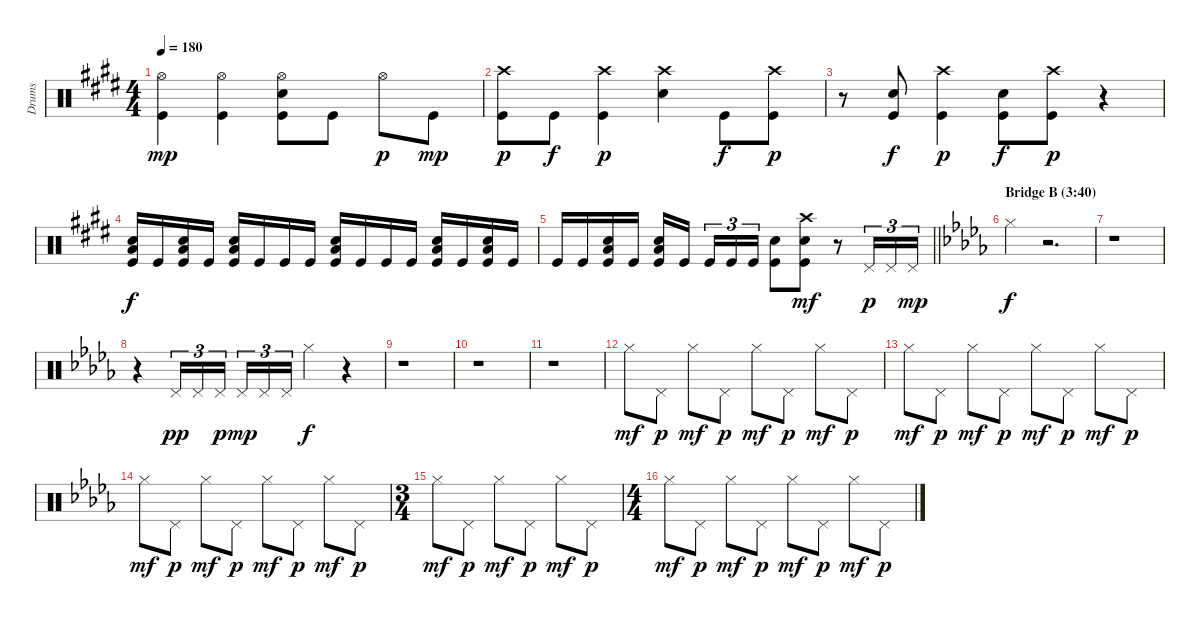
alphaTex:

\track ("Drums" "Drums") {instrument percussion}
\staff {score}
\articulation defaults
\ts (4 4)
\tempo 180
\clef neutral
\ks c#minor
("Hi-Hat (open)" "Kick (hit)").4{dy mp} ("Hi-Hat (open)" "Kick (hit)").4 ("Hi-Hat (open)" "Snare (hit) 2" "Kick (hit)").8 "Kick (hit)".8 "Hi-Hat (open)".8{dy p} "Kick (hit)".8{dy mp} |
("Crash high (hit)" "Kick (hit)").8{dy p} "Kick (hit)".8{dy f} ("Crash high (hit)" "Kick (hit)").4{dy p} ("Crash high (hit)" "Snare (hit) 2").4 "Kick (hit)".8{dy f} ("Crash high (hit)" "Kick (hit)").8{dy p} |
r.8 ("Snare (hit) 2" "Kick (hit)").8{dy f} ("Crash high (hit)" "Kick (hit)").4{dy p} ("Snare (hit) 2" "Kick (hit)").8{dy f} ("Crash high (hit)" "Kick (hit)").8{dy p} r.4 |
("Low Floor Tom (hit)" "Snare (hit) 2" "Kick (hit)").16{dy f} "Kick (hit)".16 ("Low Floor Tom (hit)" "Snare (hit) 2" "Kick (hit)").16 "Kick (hit)".16 ("Low Floor Tom (hit)" "Snare (hit) 2" "Kick (hit)").16 "Kick (hit)".16 "Kick (hit)".16 "Kick (hit)".16 ("Low Floor Tom (hit)" "Snare (hit) 2" "Kick (hit)").16 "Kick (hit)".16 "Kick (hit)".16 "Kick (hit)".16 ("Low Floor Tom (hit)" "Snare (hit) 2" "Kick (hit)").16 "Kick (hit)".16 ("Low Floor Tom (hit)" "Snare (hit) 2" "Kick (hit)").16 "Kick (hit)".16 |
\barLineRight lightlight "Kick (hit)".16 "Kick (hit)".16
("Low Floor Tom (hit)" "Snare (hit) 2" "Kick (hit)").16 "Kick (hit)".16 ("Low Floor Tom (hit)" "Snare (hit) 2" "Kick (hit)").16 "Kick (hit)".16{beam splitsecondary} "Kick (hit)".16{tu (3 2)} "Kick (hit)".16{tu (3 2)} "Kick (hit)".16{tu (3 2)} ("Snare (hit) 2" "Kick (hit)").8 ("Crash high (hit)" "Snare (hit) 2" "Kick (hit)").8{dy mf} r.8 "Pedal Hi-Hat (hit)".16{tu (3 2) dy p} "Pedal Hi-Hat (hit)".16{tu (3 2)} "Pedal Hi-Hat (hit)".16{tu (3 2) dy mp} |
\section ("" "Bridge B (3:40)")
\ks bbminor "Hi-Hat (closed)".4{dy f}
r.2{d} |
r.1 |
r.4 "Pedal Hi-Hat (hit)".16{tu (3 2) dy pp volume 8 balance 0} "Pedal Hi-Hat (hit)".16{tu (3 2)} "Pedal Hi-Hat (hit)".16{tu (3 2) dy p beam splitsecondary} "Pedal Hi-Hat (hit)".16{tu (3 2) dy mp} "Pedal Hi-Hat (hit)".16{tu (3 2)} "Pedal Hi-Hat (hit)".16{tu (3 2)} "Hi-Hat (closed)".4{dy f} r.4 |
r.1 |
r.1 |
r.1 |
"Hi-Hat (closed)".8{dy mf balance 8} "Pedal Hi-Hat (hit)".8{dy p} "Hi-Hat (closed)".8{dy mf} "Pedal Hi-Hat (hit)".8{dy p} "Hi-Hat (closed)".8{dy mf} "Pedal Hi-Hat (hit)".8{dy p} "Hi-Hat (closed)".8{dy mf} "Pedal Hi-Hat (hit)".8{dy p} |
"Hi-Hat (closed)".8{dy mf} "Pedal Hi-Hat (hit)".8{dy p} "Hi-Hat (closed)".8{dy mf} "Pedal Hi-Hat (hit)".8{dy p} "Hi-Hat (closed)".8{dy mf} "Pedal Hi-Hat (hit)".8{dy p} "Hi-Hat (closed)".8{dy mf} "Pedal Hi-Hat (hit)".8{dy p} |
"Hi-Hat (closed)".8{dy mf} "Pedal Hi-Hat (hit)".8{dy p} "Hi-Hat (closed)".8{dy mf} "Pedal Hi-Hat (hit)".8{dy p} "Hi-Hat (closed)".8{dy mf} "Pedal Hi-Hat (hit)".8{dy p} "Hi-Hat (closed)".8{dy mf} "Pedal Hi-Hat (hit)".8{dy p} |
\ts (3 4)
"Hi-Hat (closed)".8{dy mf} "Pedal Hi-Hat (hit)".8{dy p} "Hi-Hat (closed)".8{dy mf} "Pedal Hi-Hat (hit)".8{dy p} "Hi-Hat (closed)".8{dy mf} "Pedal Hi-Hat (hit)".8{dy p} |
\ts (4 4)
"Hi-Hat (closed)".8{dy mf} "Pedal Hi-Hat (hit)".8{dy p} "Hi-Hat (closed)".8{dy mf} "Pedal Hi-Hat (hit)".8{dy p} "Hi-Hat (closed)".8{dy mf} "Pedal Hi-Hat (hit)".8{dy p} "Hi-Hat (closed)".8{dy mf} "Pedal Hi-Hat (hit)".8{dy p}
